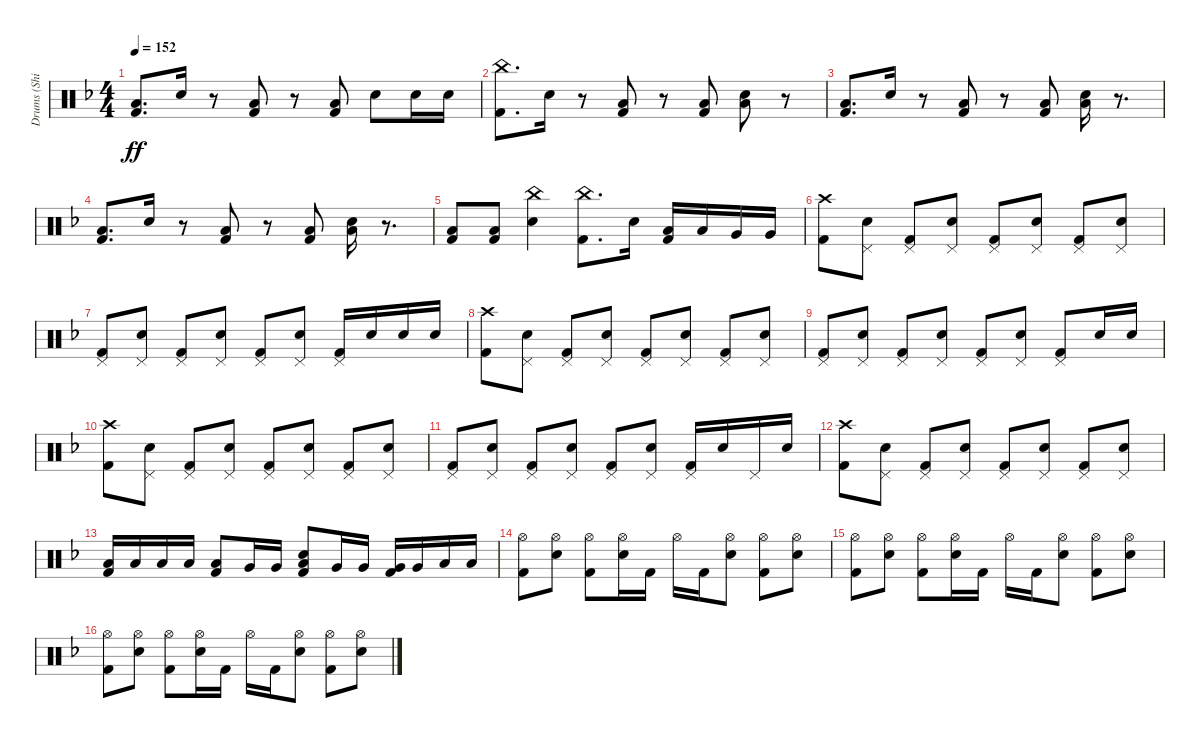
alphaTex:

\track ("Drums (Shinya ! Shinya !)" "Drums (Shi") {instrument percussion}
\staff {score}
\articulation defaults
\ts (4 4)
\tempo 152
\clef neutral
\ks f
("Kick (hit) 2" "Low Floor Tom (hit)").8{d dy ff} "Electric Snare (hit)".16 r.8 ("Kick (hit) 2" "Low Floor Tom (hit)").8 r.8 ("Kick (hit) 2" "Low Floor Tom (hit)").8 "Electric Snare (hit)".8 "Electric Snare (hit)".16 "Electric Snare (hit)".16 |
("Kick (hit) 2" "China (hit)").8{d} "Electric Snare (hit)".16 r.8 ("Kick (hit) 2" "Low Floor Tom (hit)").8 r.8 ("Kick (hit) 2" "Low Floor Tom (hit)").8 ("Electric Snare (hit)" "Low Tom (hit)").8 r.8 |
("Kick (hit) 2" "Low Floor Tom (hit)").8{d} "Electric Snare (hit)".16 r.8 ("Kick (hit) 2" "Low Floor Tom (hit)").8 r.8 ("Kick (hit) 2" "Low Floor Tom (hit)").8 ("Electric Snare (hit)" "Low Tom (hit)").16 r.8{d} |
("Kick (hit) 2" "Low Floor Tom (hit)").8{d} "Electric Snare (hit)".16 r.8 ("Kick (hit) 2" "Low Floor Tom (hit)").8 r.8 ("Kick (hit) 2" "Low Floor Tom (hit)").8 ("Electric Snare (hit)" "Low Tom (hit)").16 r.8{d} |
("Kick (hit) 2" "Low Floor Tom (hit)").8 ("Kick (hit) 2" "Low Floor Tom (hit)").8 ("Electric Snare (hit)" "China (hit)").4 ("China (hit)" "Kick (hit) 2").8{d} "Electric Snare (hit)".16 ("Kick (hit) 2" "Low Tom (hit)").16 "Low Tom (hit)".16 "Very Low Tom (hit)".16 "Very Low Tom (hit)".16 |
("Crash high (hit)" "Kick (hit) 2").8 ("Pedal Hi-Hat (hit)" "Electric Snare (hit)").8 ("Pedal Hi-Hat (hit)" "Kick (hit) 2").8 ("Pedal Hi-Hat (hit)" "Electric Snare (hit)").8 ("Pedal Hi-Hat (hit)" "Kick (hit) 2").8 ("Pedal Hi-Hat (hit)" "Electric Snare (hit)").8 ("Pedal Hi-Hat (hit)" "Kick (hit) 2").8 ("Pedal Hi-Hat (hit)" "Electric Snare (hit)").8 |
("Pedal Hi-Hat (hit)" "Kick (hit) 2").8 ("Pedal Hi-Hat (hit)" "Electric Snare (hit)").8 ("Pedal Hi-Hat (hit)" "Kick (hit) 2").8 ("Pedal Hi-Hat (hit)" "Electric Snare (hit)").8 ("Pedal Hi-Hat (hit)" "Kick (hit) 2").8 ("Pedal Hi-Hat (hit)" "Electric Snare (hit)").8 ("Pedal Hi-Hat (hit)" "Kick (hit) 2").16 "Electric Snare (hit)".16 "Electric Snare (hit)".16 "Electric Snare (hit)".16 |
("Crash high (hit)" "Kick (hit) 2").8 ("Pedal Hi-Hat (hit)" "Electric Snare (hit)").8 ("Pedal Hi-Hat (hit)" "Kick (hit) 2").8 ("Pedal Hi-Hat (hit)" "Electric Snare (hit)").8 ("Pedal Hi-Hat (hit)" "Kick (hit) 2").8 ("Pedal Hi-Hat (hit)" "Electric Snare (hit)").8 ("Pedal Hi-Hat (hit)" "Kick (hit) 2").8 ("Pedal Hi-Hat (hit)" "Electric Snare (hit)").8 |
("Pedal Hi-Hat (hit)" "Kick (hit) 2").8 ("Pedal Hi-Hat (hit)" "Electric Snare (hit)").8 ("Pedal Hi-Hat (hit)" "Kick (hit) 2").8 ("Pedal Hi-Hat (hit)" "Electric Snare (hit)").8 ("Pedal Hi-Hat (hit)" "Kick (hit) 2").8 ("Pedal Hi-Hat (hit)" "Electric Snare (hit)").8 ("Pedal Hi-Hat (hit)" "Kick (hit) 2").8 "Electric Snare (hit)".16 "Electric Snare (hit)".16 |
("Crash high (hit)" "Kick (hit) 2").8 ("Pedal Hi-Hat (hit)" "Electric Snare (hit)").8 ("Pedal Hi-Hat (hit)" "Kick (hit) 2").8 ("Pedal Hi-Hat (hit)" "Electric Snare (hit)").8 ("Pedal Hi-Hat (hit)" "Kick (hit) 2").8 ("Pedal Hi-Hat (hit)" "Electric Snare (hit)").8 ("Pedal Hi-Hat (hit)" "Kick (hit) 2").8 ("Pedal Hi-Hat (hit)" "Electric Snare (hit)").8 |
("Pedal Hi-Hat (hit)" "Kick (hit) 2").8 ("Pedal Hi-Hat (hit)" "Electric Snare (hit)").8 ("Pedal Hi-Hat (hit)" "Kick (hit) 2").8 ("Pedal Hi-Hat (hit)" "Electric Snare (hit)").8 ("Pedal Hi-Hat (hit)" "Kick (hit) 2").8 ("Pedal Hi-Hat (hit)" "Electric Snare (hit)").8 ("Pedal Hi-Hat (hit)" "Kick (hit) 2").16 "Electric Snare (hit)".16 "Pedal Hi-Hat (hit)".16 "Electric Snare (hit)".16 |
("Crash high (hit)" "Kick (hit) 2").8 ("Pedal Hi-Hat (hit)" "Electric Snare (hit)").8 ("Pedal Hi-Hat (hit)" "Kick (hit) 2").8 ("Pedal Hi-Hat (hit)" "Electric Snare (hit)").8 ("Pedal Hi-Hat (hit)" "Kick (hit) 2").8 ("Pedal Hi-Hat (hit)" "Electric Snare (hit)").8 ("Pedal Hi-Hat (hit)" "Kick (hit) 2").8 ("Pedal Hi-Hat (hit)" "Electric Snare (hit)").8 |
("Low Tom (hit)" "Kick (hit) 2").16 "Low Tom (hit)".16 "Low Tom (hit)".16 "Low Tom (hit)".16 ("Low Tom (hit)" "Kick (hit) 2").8 "Very Low Tom (hit)".16 "Very Low Tom (hit)".16 ("Electric Snare (hit)" "Low Tom (hit)" "Kick (hit) 2").8 "Very Low Tom (hit)".16 "Very Low Tom (hit)".16 ("Very Low Tom (hit)" "Kick (hit) 2").16 "Very Low Tom (hit)".16 "Low Floor Tom (hit)".16 "Low Floor Tom (hit)".16 |
("Kick (hit) 2" "Hi-Hat (open)").8 ("Electric Snare (hit)" "Hi-Hat (open)").8 ("Kick (hit) 2" "Hi-Hat (open)").8 ("Electric Snare (hit)" "Hi-Hat (open)").16 "Kick (hit) 2".16 "Hi-Hat (open)".16 "Kick (hit) 2".16 ("Electric Snare (hit)" "Hi-Hat (open)").8 ("Kick (hit) 2" "Hi-Hat (open)").8 ("Electric Snare (hit)" "Hi-Hat (open)").8 |
("Kick (hit) 2" "Hi-Hat (open)").8 ("Electric Snare (hit)" "Hi-Hat (open)").8 ("Kick (hit) 2" "Hi-Hat (open)").8 ("Electric Snare (hit)" "Hi-Hat (open)").16 "Kick (hit) 2".16 "Hi-Hat (open)".16 "Kick (hit) 2".16 ("Electric Snare (hit)" "Hi-Hat (open)").8 ("Kick (hit) 2" "Hi-Hat (open)").8 ("Electric Snare (hit)" "Hi-Hat (open)").8 |
("Kick (hit) 2" "Hi-Hat (open)").8 ("Electric Snare (hit)" "Hi-Hat (open)").8 ("Kick (hit) 2" "Hi-Hat (open)").8 ("Electric Snare (hit)" "Hi-Hat (open)").16 "Kick (hit) 2".16 "Hi-Hat (open)".16 "Kick (hit) 2".16 ("Electric Snare (hit)" "Hi-Hat (open)").8 ("Kick (hit) 2" "Hi-Hat (open)").8 ("Electric Snare (hit)" "Hi-Hat (open)").8
